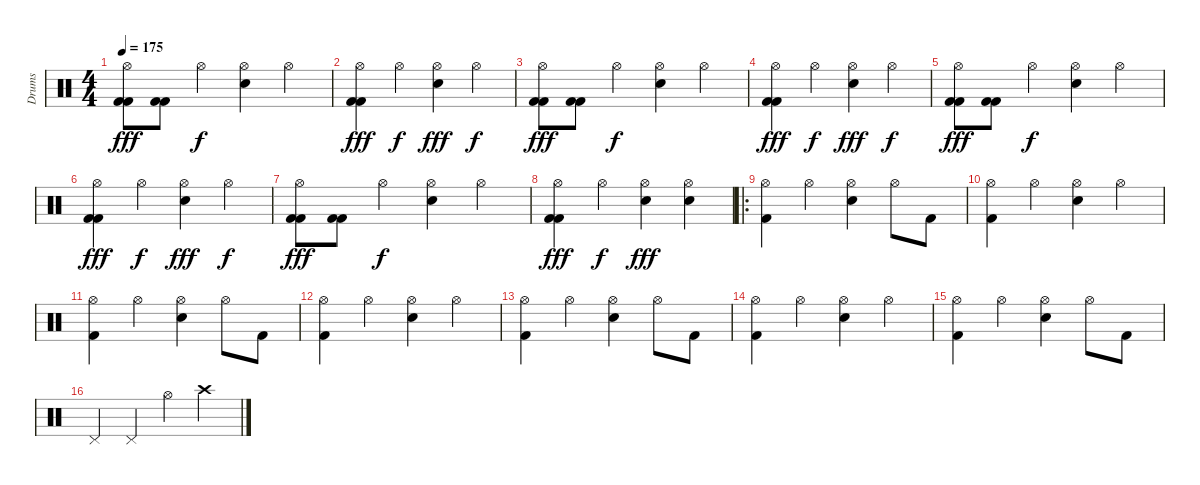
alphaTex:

\track ("Drums" "Drums") {instrument percussion}
\staff {score}
\articulation defaults
\ts (4 4)
\tempo 175
\clef neutral
\ks c
("Hi-Hat (open)" "Kick (hit) 2" "Kick (hit) 2").8{dy fff} ("Kick (hit) 2" "Kick (hit) 2").8 "Hi-Hat (open)".4{dy f} ("Hi-Hat (open)" "Snare (hit) 2").4 "Hi-Hat (open)".4 |
("Hi-Hat (open)" "Kick (hit) 2" "Kick (hit) 2").4{dy fff} "Hi-Hat (open)".4{dy f} ("Hi-Hat (open)" "Snare (hit) 2").4{dy fff} "Hi-Hat (open)".4{dy f} |
("Hi-Hat (open)" "Kick (hit) 2" "Kick (hit) 2").8{dy fff} ("Kick (hit) 2" "Kick (hit) 2").8 "Hi-Hat (open)".4{dy f} ("Hi-Hat (open)" "Snare (hit) 2").4 "Hi-Hat (open)".4 |
("Hi-Hat (open)" "Kick (hit) 2" "Kick (hit) 2").4{dy fff} "Hi-Hat (open)".4{dy f} ("Hi-Hat (open)" "Snare (hit) 2").4{dy fff} "Hi-Hat (open)".4{dy f} |
("Hi-Hat (open)" "Kick (hit) 2" "Kick (hit) 2").8{dy fff} ("Kick (hit) 2" "Kick (hit) 2").8 "Hi-Hat (open)".4{dy f} ("Hi-Hat (open)" "Snare (hit) 2").4 "Hi-Hat (open)".4 |
("Hi-Hat (open)" "Kick (hit) 2" "Kick (hit) 2").4{dy fff} "Hi-Hat (open)".4{dy f} ("Hi-Hat (open)" "Snare (hit) 2").4{dy fff} "Hi-Hat (open)".4{dy f} |
("Hi-Hat (open)" "Kick (hit) 2" "Kick (hit) 2").8{dy fff} ("Kick (hit) 2" "Kick (hit) 2").8 "Hi-Hat (open)".4{dy f} ("Hi-Hat (open)" "Snare (hit) 2").4 "Hi-Hat (open)".4 |
("Hi-Hat (open)" "Kick (hit) 2" "Kick (hit) 2").4{dy fff} "Hi-Hat (open)".4{dy f} ("Hi-Hat (open)" "Snare (hit) 2").4{dy fff} ("Hi-Hat (open)" "Snare (hit) 2").4 |
\ro
("Hi-Hat (open)" "Kick (hit) 2").4 "Hi-Hat (open)".4 ("Hi-Hat (open)" "Snare (hit) 2").4 "Hi-Hat (open)".8 "Kick (hit) 2".8 |
("Hi-Hat (open)" "Kick (hit) 2").4 "Hi-Hat (open)".4 ("Hi-Hat (open)" "Snare (hit) 2").4 "Hi-Hat (open)".4 |
("Hi-Hat (open)" "Kick (hit) 2").4 "Hi-Hat (open)".4 ("Hi-Hat (open)" "Snare (hit) 2").4 "Hi-Hat (open)".8 "Kick (hit) 2".8 |
("Hi-Hat (open)" "Kick (hit) 2").4 "Hi-Hat (open)".4 ("Hi-Hat (open)" "Snare (hit) 2").4 "Hi-Hat (open)".4 |
("Hi-Hat (open)" "Kick (hit) 2").4 "Hi-Hat (open)".4 ("Hi-Hat (open)" "Snare (hit) 2").4 "Hi-Hat (open)".8 "Kick (hit) 2".8 |
("Hi-Hat (open)" "Kick (hit) 2").4 "Hi-Hat (open)".4 ("Hi-Hat (open)" "Snare (hit) 2").4 "Hi-Hat (open)".4 |
("Hi-Hat (open)" "Kick (hit) 2").4 "Hi-Hat (open)".4 ("Hi-Hat (open)" "Snare (hit) 2").4 "Hi-Hat (open)".8 "Kick (hit) 2".8 |
"Pedal Hi-Hat (hit)".4 "Pedal Hi-Hat (hit)".4 "Hi-Hat (open)".4 "Crash high (hit)".4
